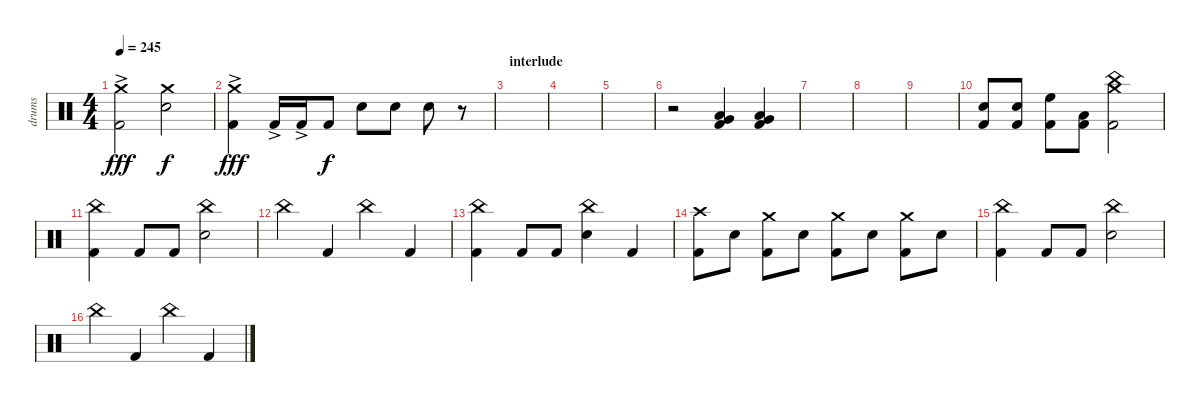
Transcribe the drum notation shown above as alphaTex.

\track ("drums" "drums") {instrument percussion}
\staff {score}
\articulation defaults
\ts (4 4)
\tempo 245
\clef neutral
\ks c
("Crash medium (hit)" "Kick (hit) 2"{ac}).2{dy fff} ("Crash medium (hit)" "Electric Snare (hit)").2{dy f} |
("Crash medium (hit)" "Kick (hit) 2"{ac}).4{dy fff} "Kick (hit) 2"{ac}.16 "Kick (hit) 2"{ac}.16 "Kick (hit) 2".8{dy f} "Electric Snare (hit)".8 "Electric Snare (hit)".8 "Electric Snare (hit)".8 r.8 |
\section ("" "interlude")
|
|
|
r.2 ("Very Low Tom (hit)" "Low Floor Tom (hit)" "Kick (hit) 2").4 ("Very Low Tom (hit)" "Low Floor Tom (hit)" "Kick (hit) 2").4 |
|
|
|
("Electric Snare (hit)" "Kick (hit) 2").8 ("Electric Snare (hit)" "Kick (hit) 2").8 ("High Floor Tom (hit)" "Kick (hit) 2").8 ("Low Tom (hit)" "Kick (hit) 2").8 ("China (hit)" "Crash medium (hit)" "Kick (hit) 2").2 |
("China (hit)" "Kick (hit) 2").4 "Kick (hit) 2".8 "Kick (hit) 2".8 ("China (hit)" "Electric Snare (hit)").2 |
"China (hit)".4 "Kick (hit) 2".4 "China (hit)".4 "Kick (hit) 2".4 |
("China (hit)" "Kick (hit) 2").4 "Kick (hit) 2".8 "Kick (hit) 2".8 ("China (hit)" "Electric Snare (hit)").4 "Kick (hit) 2".4 |
("Crash high (hit)" "Kick (hit) 2").8 "Electric Snare (hit)".8 ("Crash medium (hit)" "Kick (hit) 2").8 "Electric Snare (hit)".8 ("Crash medium (hit)" "Kick (hit) 2").8 "Electric Snare (hit)".8 ("Crash medium (hit)" "Kick (hit) 2").8 "Electric Snare (hit)".8 |
("China (hit)" "Kick (hit) 2").4 "Kick (hit) 2".8 "Kick (hit) 2".8 ("China (hit)" "Electric Snare (hit)").2 |
"China (hit)".4 "Kick (hit) 2".4 "China (hit)".4 "Kick (hit) 2".4
